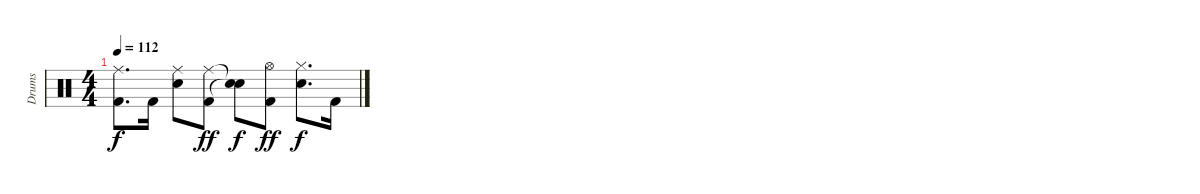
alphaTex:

\track ("Drums" "Drums") {instrument percussion}
\staff {score}
\articulation defaults
\ts (4 4)
\tempo 112
\clef neutral
\ks c
("Ride (middle)" "Kick (hit) 2").8{d dy f} "Kick (hit) 2".16 ("Ride (middle)" "Electric Snare (hit)").8 ("Ride (middle)" "Kick (hit) 2").8{dy ff} ("Snare (hit)"{t} "Snare (hit)"{t}).8{dy f} ("Hi-Hat (open)" "Kick (hit) 2").8{dy ff} ("Hi-Hat (closed)" "Electric Snare (hit)").8{d dy f} "Kick (hit) 2".16
